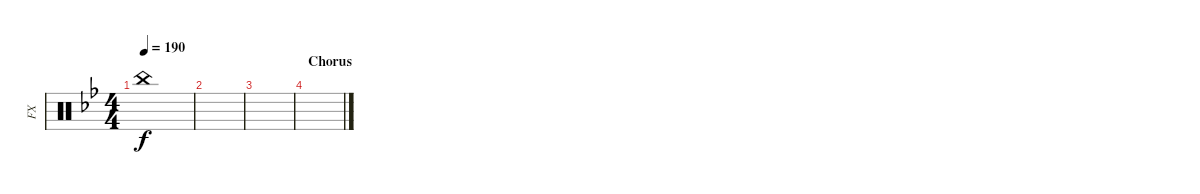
\track ("FX" "FX") {instrument percussion}
\staff {score}
\articulation defaults
\ts (4 4)
\tempo 190
\clef neutral
\ks bb "China (hit)".1{dy f}
|
|
|
\section ("" "Chorus")
